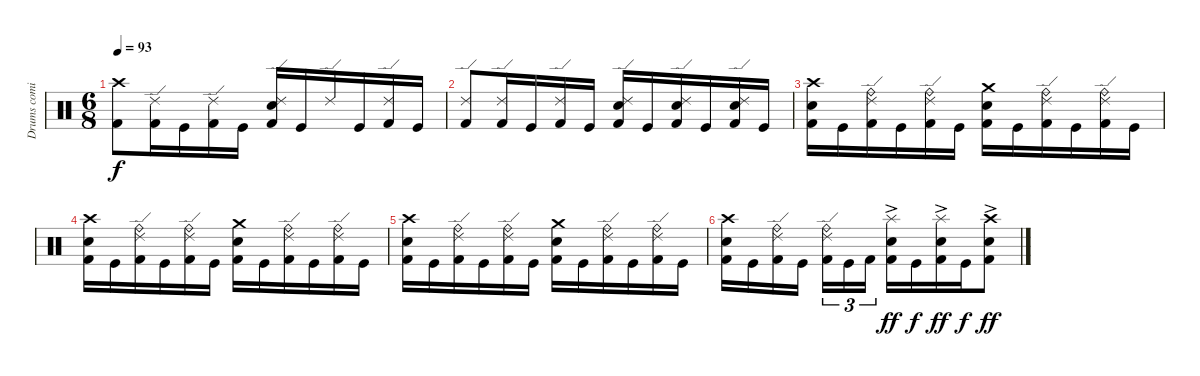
\track ("Drums coming soon" "Drums comi") {instrument percussion}
\staff {score}
\articulation defaults
\ts (6 8)
\tempo 93
\clef neutral
\ks c
("Crash high (hit)" "Kick (hit) 2").8{dy f} ("Ride (edge) 2" "Kick (hit) 2").16 "Kick (hit)".16 ("Ride (edge) 2" "Kick (hit) 2").16 "Kick (hit)".16 ("Ride (edge) 2" "Snare (hit) 2" "Kick (hit) 2").16 "Kick (hit)".16 "Ride (edge) 2".16 "Kick (hit)".16 ("Ride (edge) 2" "Kick (hit) 2").16 "Kick (hit)".16 |
("Ride (edge) 2" "Kick (hit) 2").8 ("Ride (edge) 2" "Kick (hit) 2").16 "Kick (hit)".16 ("Ride (edge) 2" "Kick (hit) 2").16 "Kick (hit)".16 ("Ride (edge) 2" "Snare (hit) 2" "Kick (hit) 2").16 "Kick (hit)".16 ("Ride (edge) 2" "Snare (hit) 2" "Kick (hit) 2").16 "Kick (hit)".16 ("Ride (edge) 2" "Snare (hit) 2" "Kick (hit) 2").16 "Kick (hit)".16 |
("Crash high (hit)" "Snare (hit) 2" "Kick (hit) 2").16 "Kick (hit)".16 ("Ride (edge) 2" "Ride (bell)" "Kick (hit) 2").16 "Kick (hit)".16 ("Ride (edge) 2" "Ride (bell)" "Kick (hit) 2").16 "Kick (hit)".16 ("Crash medium (hit)" "Snare (hit) 2" "Kick (hit) 2").16 "Kick (hit)".16 ("Ride (edge) 2" "Ride (bell)" "Kick (hit) 2").16 "Kick (hit)".16 ("Ride (edge) 2" "Ride (bell)" "Kick (hit) 2").16 "Kick (hit)".16 |
("Crash high (hit)" "Snare (hit) 2" "Kick (hit) 2").16 "Kick (hit)".16 ("Ride (edge) 2" "Ride (bell)" "Kick (hit) 2").16 "Kick (hit)".16 ("Ride (edge) 2" "Ride (bell)" "Kick (hit) 2").16 "Kick (hit)".16 ("Crash medium (hit)" "Snare (hit) 2" "Kick (hit) 2").16 "Kick (hit)".16 ("Ride (edge) 2" "Ride (bell)" "Kick (hit) 2").16 "Kick (hit)".16 ("Ride (edge) 2" "Ride (bell)" "Kick (hit) 2").16 "Kick (hit)".16 |
("Crash high (hit)" "Snare (hit) 2" "Kick (hit) 2").16 "Kick (hit)".16 ("Ride (edge) 2" "Ride (bell)" "Kick (hit) 2").16 "Kick (hit)".16 ("Ride (edge) 2" "Ride (bell)" "Kick (hit) 2").16 "Kick (hit)".16 ("Crash medium (hit)" "Snare (hit) 2" "Kick (hit) 2").16 "Kick (hit)".16 ("Ride (edge) 2" "Ride (bell)" "Kick (hit) 2").16 "Kick (hit)".16 ("Ride (edge) 2" "Ride (bell)" "Kick (hit) 2").16 "Kick (hit)".16 |
("Crash high (hit)" "Snare (hit) 2" "Kick (hit) 2").16 "Kick (hit)".16 ("Ride (edge) 2" "Ride (bell)" "Kick (hit) 2").16 "Kick (hit)".16{beam splitsecondary} ("Ride (edge) 2" "Ride (bell)" "Kick (hit) 2").16{tu (3 2)} "Kick (hit)".16{tu (3 2)} "Kick (hit) 2".16{tu (3 2)} ("Splash (hit)"{ac} "Snare (hit) 2"{ac} "Kick (hit) 2").16{dy ff} "Kick (hit)".16{dy f} ("Splash (hit)"{ac} "Snare (hit) 2"{ac} "Kick (hit) 2").16{dy ff} "Kick (hit)".16{dy f} ("Crash high (hit)"{ac} "Snare (hit) 2"{ac} "Kick (hit) 2"{ac}).8{dy ff}
